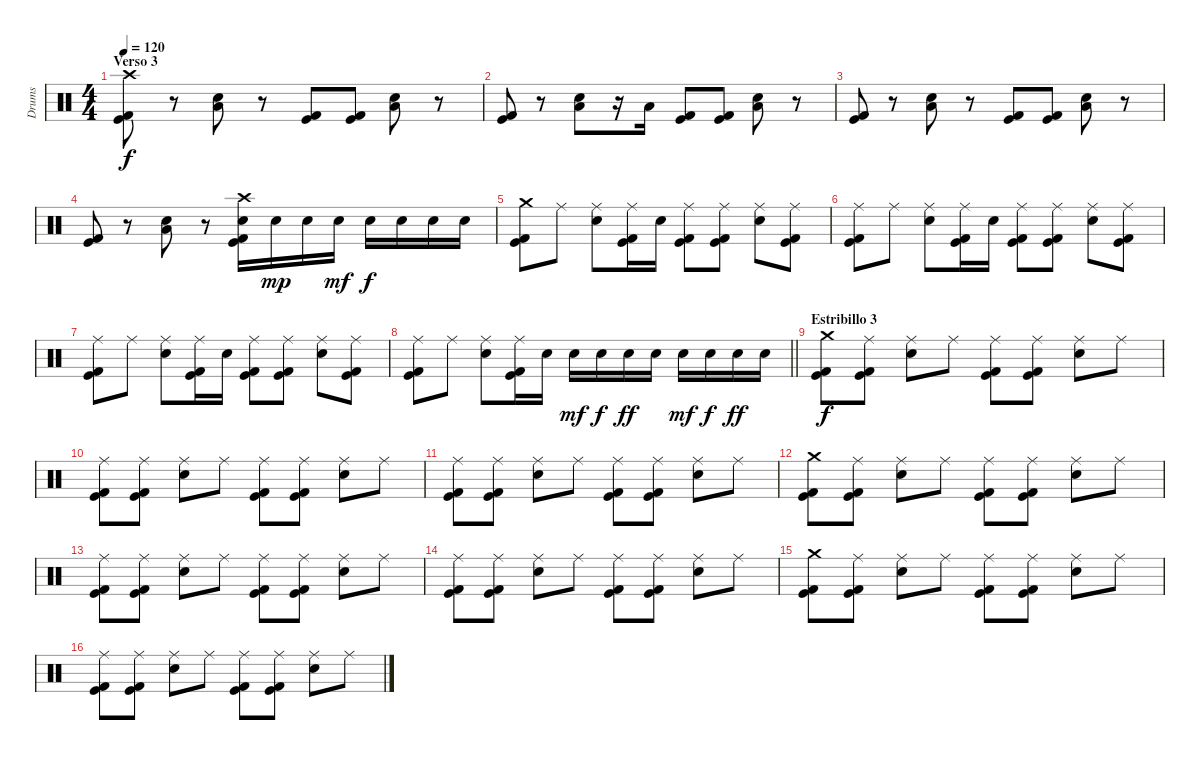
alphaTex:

\track ("Drums" "Drums") {instrument percussion}
\staff {score}
\articulation defaults
\ts (4 4)
\section ("" "Verso 3")
\tempo 120
\clef neutral
\ks c
("Crash high (hit)" "Kick (hit)" "Kick (hit) 2").8{dy f} r.8 ("Electric Snare (hit)" "Low Tom (hit)").8 r.8 ("Kick (hit)" "Kick (hit) 2").8 ("Kick (hit)" "Kick (hit) 2").8 ("Electric Snare (hit)" "Low Tom (hit)").8 r.8 |
("Kick (hit)" "Kick (hit) 2").8 r.8 ("Electric Snare (hit)" "Low Tom (hit)").8 r.16 "Low Tom (hit)".16 ("Kick (hit)" "Kick (hit) 2").8 ("Kick (hit)" "Kick (hit) 2").8 ("Electric Snare (hit)" "Low Tom (hit)").8 r.8 |
("Kick (hit)" "Kick (hit) 2").8 r.8 ("Electric Snare (hit)" "Low Tom (hit)").8 r.8 ("Kick (hit)" "Kick (hit) 2").8 ("Kick (hit)" "Kick (hit) 2").8 ("Electric Snare (hit)" "Low Tom (hit)").8 r.8 |
("Kick (hit)" "Kick (hit) 2").8 r.8 ("Electric Snare (hit)" "Low Tom (hit)").8 r.8 ("Crash high (hit)" "Electric Snare (hit)" "Kick (hit)" "Kick (hit) 2").16 "Electric Snare (hit)".16{dy mp} "Electric Snare (hit)".16 "Electric Snare (hit)".16{dy mf} "Electric Snare (hit)".16{dy f} "Electric Snare (hit)".16 "Electric Snare (hit)".16 "Electric Snare (hit)".16 |
("Crash medium (hit)" "Kick (hit)" "Kick (hit) 2").8 "Ride (middle)".8 ("Ride (middle)" "Electric Snare (hit)").8 ("Ride (middle)" "Kick (hit)" "Kick (hit) 2").16 "Electric Snare (hit)".16 ("Ride (middle)" "Kick (hit)" "Kick (hit) 2").8 ("Ride (middle)" "Kick (hit)" "Kick (hit) 2").8 ("Ride (middle)" "Electric Snare (hit)").8 ("Ride (middle)" "Kick (hit)" "Kick (hit) 2").8 |
("Ride (middle)" "Kick (hit)" "Kick (hit) 2").8 "Ride (middle)".8 ("Ride (middle)" "Electric Snare (hit)").8 ("Ride (middle)" "Kick (hit)" "Kick (hit) 2").16 "Electric Snare (hit)".16 ("Ride (middle)" "Kick (hit)" "Kick (hit) 2").8 ("Ride (middle)" "Kick (hit)" "Kick (hit) 2").8 ("Ride (middle)" "Electric Snare (hit)").8 ("Ride (middle)" "Kick (hit)" "Kick (hit) 2").8 |
("Ride (middle)" "Kick (hit)" "Kick (hit) 2").8 "Ride (middle)".8 ("Ride (middle)" "Electric Snare (hit)").8 ("Ride (middle)" "Kick (hit)" "Kick (hit) 2").16 "Electric Snare (hit)".16 ("Ride (middle)" "Kick (hit)" "Kick (hit) 2").8 ("Ride (middle)" "Kick (hit)" "Kick (hit) 2").8 ("Ride (middle)" "Electric Snare (hit)").8 ("Ride (middle)" "Kick (hit)" "Kick (hit) 2").8 |
\barLineRight lightlight
("Ride (middle)" "Kick (hit)" "Kick (hit) 2").8 "Ride (middle)".8 ("Ride (middle)" "Electric Snare (hit)").8 ("Ride (middle)" "Kick (hit)" "Kick (hit) 2").16 "Electric Snare (hit)".16 "Electric Snare (hit)".16{dy mf} "Electric Snare (hit)".16{dy f} "Electric Snare (hit)".16{dy ff} "Electric Snare (hit)".16 "Electric Snare (hit)".16{dy mf} "Electric Snare (hit)".16{dy f} "Electric Snare (hit)".16{dy ff} "Electric Snare (hit)".16 |
\section ("" "Estribillo 3")
("Crash medium (hit)" "Kick (hit)" "Kick (hit) 2").8{dy f} ("Ride (middle)" "Kick (hit)" "Kick (hit) 2").8 ("Ride (middle)" "Electric Snare (hit)").8 "Ride (middle)".8 ("Ride (middle)" "Kick (hit)" "Kick (hit) 2").8 ("Ride (middle)" "Kick (hit)" "Kick (hit) 2").8 ("Ride (middle)" "Electric Snare (hit)").8 "Ride (middle)".8 |
("Ride (middle)" "Kick (hit)" "Kick (hit) 2").8 ("Ride (middle)" "Kick (hit)" "Kick (hit) 2").8 ("Ride (middle)" "Electric Snare (hit)").8 "Ride (middle)".8 ("Ride (middle)" "Kick (hit)" "Kick (hit) 2").8 ("Ride (middle)" "Kick (hit)" "Kick (hit) 2").8 ("Ride (middle)" "Electric Snare (hit)").8 "Ride (middle)".8 |
("Ride (middle)" "Kick (hit)" "Kick (hit) 2").8 ("Ride (middle)" "Kick (hit)" "Kick (hit) 2").8 ("Ride (middle)" "Electric Snare (hit)").8 "Ride (middle)".8 ("Ride (middle)" "Kick (hit)" "Kick (hit) 2").8 ("Ride (middle)" "Kick (hit)" "Kick (hit) 2").8 ("Ride (middle)" "Electric Snare (hit)").8 "Ride (middle)".8 |
("Crash medium (hit)" "Kick (hit)" "Kick (hit) 2").8 ("Ride (middle)" "Kick (hit)" "Kick (hit) 2").8 ("Ride (middle)" "Electric Snare (hit)").8 "Ride (middle)".8 ("Ride (middle)" "Kick (hit)" "Kick (hit) 2").8 ("Ride (middle)" "Kick (hit)" "Kick (hit) 2").8 ("Ride (middle)" "Electric Snare (hit)").8 "Ride (middle)".8 |
("Ride (middle)" "Kick (hit)" "Kick (hit) 2").8 ("Ride (middle)" "Kick (hit)" "Kick (hit) 2").8 ("Ride (middle)" "Electric Snare (hit)").8 "Ride (middle)".8 ("Ride (middle)" "Kick (hit)" "Kick (hit) 2").8 ("Ride (middle)" "Kick (hit)" "Kick (hit) 2").8 ("Ride (middle)" "Electric Snare (hit)").8 "Ride (middle)".8 |
("Ride (middle)" "Kick (hit)" "Kick (hit) 2").8 ("Ride (middle)" "Kick (hit)" "Kick (hit) 2").8 ("Ride (middle)" "Electric Snare (hit)").8 "Ride (middle)".8 ("Ride (middle)" "Kick (hit)" "Kick (hit) 2").8 ("Ride (middle)" "Kick (hit)" "Kick (hit) 2").8 ("Ride (middle)" "Electric Snare (hit)").8 "Ride (middle)".8 |
("Crash medium (hit)" "Kick (hit)" "Kick (hit) 2").8 ("Ride (middle)" "Kick (hit)" "Kick (hit) 2").8 ("Ride (middle)" "Electric Snare (hit)").8 "Ride (middle)".8 ("Ride (middle)" "Kick (hit)" "Kick (hit) 2").8 ("Ride (middle)" "Kick (hit)" "Kick (hit) 2").8 ("Ride (middle)" "Electric Snare (hit)").8 "Ride (middle)".8 |
("Ride (middle)" "Kick (hit)" "Kick (hit) 2").8 ("Ride (middle)" "Kick (hit)" "Kick (hit) 2").8 ("Ride (middle)" "Electric Snare (hit)").8 "Ride (middle)".8 ("Ride (middle)" "Kick (hit)" "Kick (hit) 2").8 ("Ride (middle)" "Kick (hit)" "Kick (hit) 2").8 ("Ride (middle)" "Electric Snare (hit)").8 "Ride (middle)".8
